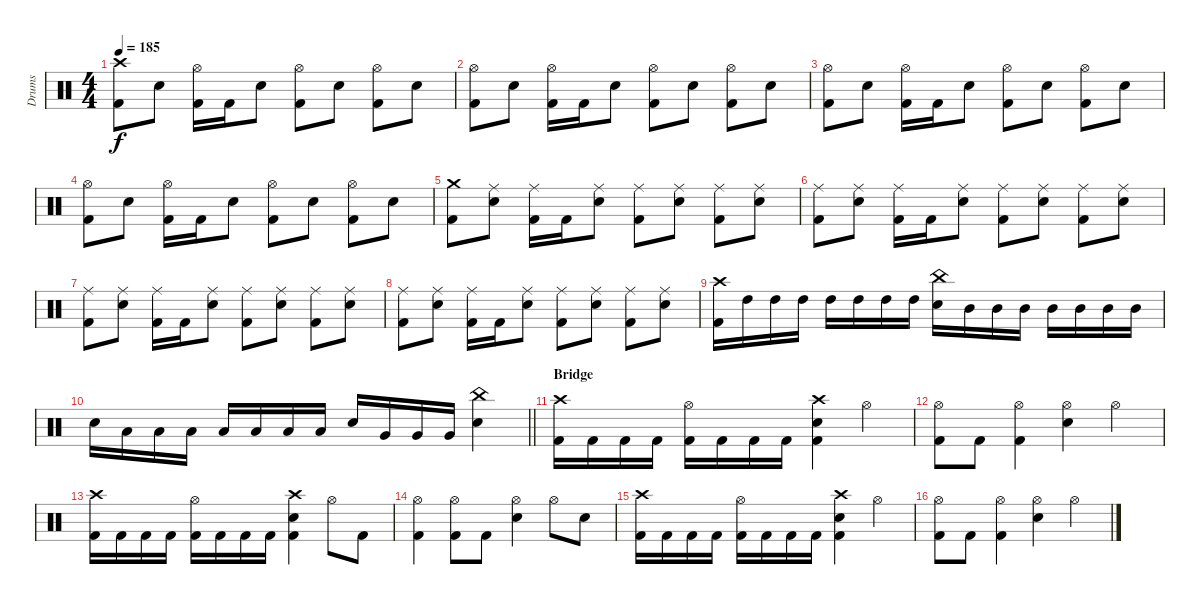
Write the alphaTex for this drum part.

\track ("Drums" "Drums") {instrument percussion}
\staff {score}
\articulation defaults
\ts (4 4)
\tempo 185
\clef neutral
\ks c
("Crash high (hit)" "Kick (hit) 2").8{dy f} "Electric Snare (hit)".8 ("Hi-Hat (open)" "Kick (hit) 2").16 "Kick (hit) 2".16 "Electric Snare (hit)".8 ("Hi-Hat (open)" "Kick (hit) 2").8 "Electric Snare (hit)".8 ("Hi-Hat (open)" "Kick (hit) 2").8 "Electric Snare (hit)".8 |
("Hi-Hat (open)" "Kick (hit) 2").8 "Electric Snare (hit)".8 ("Hi-Hat (open)" "Kick (hit) 2").16 "Kick (hit) 2".16 "Electric Snare (hit)".8 ("Hi-Hat (open)" "Kick (hit) 2").8 "Electric Snare (hit)".8 ("Hi-Hat (open)" "Kick (hit) 2").8 "Electric Snare (hit)".8 |
("Hi-Hat (open)" "Kick (hit) 2").8 "Electric Snare (hit)".8 ("Hi-Hat (open)" "Kick (hit) 2").16 "Kick (hit) 2".16 "Electric Snare (hit)".8 ("Hi-Hat (open)" "Kick (hit) 2").8 "Electric Snare (hit)".8 ("Hi-Hat (open)" "Kick (hit) 2").8 "Electric Snare (hit)".8 |
("Hi-Hat (open)" "Kick (hit) 2").8 "Electric Snare (hit)".8 ("Hi-Hat (open)" "Kick (hit) 2").16 "Kick (hit) 2".16 "Electric Snare (hit)".8 ("Hi-Hat (open)" "Kick (hit) 2").8 "Electric Snare (hit)".8 ("Hi-Hat (open)" "Kick (hit) 2").8 "Electric Snare (hit)".8 |
("Crash medium (hit)" "Kick (hit) 2").8 ("Ride (middle)" "Electric Snare (hit)").8 ("Ride (middle)" "Kick (hit) 2").16 "Kick (hit) 2".16 ("Ride (middle)" "Electric Snare (hit)").8 ("Ride (middle)" "Kick (hit) 2").8 ("Ride (middle)" "Electric Snare (hit)").8 ("Ride (middle)" "Kick (hit) 2").8 ("Ride (middle)" "Electric Snare (hit)").8 |
("Ride (middle)" "Kick (hit) 2").8 ("Ride (middle)" "Electric Snare (hit)").8 ("Ride (middle)" "Kick (hit) 2").16 "Kick (hit) 2".16 ("Ride (middle)" "Electric Snare (hit)").8 ("Ride (middle)" "Kick (hit) 2").8 ("Ride (middle)" "Electric Snare (hit)").8 ("Ride (middle)" "Kick (hit) 2").8 ("Ride (middle)" "Electric Snare (hit)").8 |
("Ride (middle)" "Kick (hit) 2").8 ("Ride (middle)" "Electric Snare (hit)").8 ("Ride (middle)" "Kick (hit) 2").16 "Kick (hit) 2".16 ("Ride (middle)" "Electric Snare (hit)").8 ("Ride (middle)" "Kick (hit) 2").8 ("Ride (middle)" "Electric Snare (hit)").8 ("Ride (middle)" "Kick (hit) 2").8 ("Ride (middle)" "Electric Snare (hit)").8 |
("Ride (middle)" "Kick (hit) 2").8 ("Ride (middle)" "Electric Snare (hit)").8 ("Ride (middle)" "Kick (hit) 2").16 "Kick (hit) 2".16 ("Ride (middle)" "Electric Snare (hit)").8 ("Ride (middle)" "Kick (hit) 2").8 ("Ride (middle)" "Electric Snare (hit)").8 ("Ride (middle)" "Kick (hit) 2").8 ("Ride (middle)" "Electric Snare (hit)").8 |
("Crash high (hit)" "Kick (hit) 2").16 "High Tom (hit)".16 "High Tom (hit)".16 "High Tom (hit)".16 "High Tom (hit)".16 "High Tom (hit)".16 "High Tom (hit)".16 "High Tom (hit)".16 ("China (hit)" "Electric Snare (hit)").16 "Mid Tom (hit)".16 "Mid Tom (hit)".16 "Mid Tom (hit)".16 "Mid Tom (hit)".16 "Mid Tom (hit)".16 "Mid Tom (hit)".16 "Mid Tom (hit)".16 |
\barLineRight lightlight "Electric Snare (hit)".16 "Low Tom (hit)".16 "Low Tom (hit)".16 "Low Tom (hit)".16 "Low Tom (hit)".16 "Low Tom (hit)".16 "Low Tom (hit)".16 "Low Tom (hit)".16 "Electric Snare (hit)".16 "Very Low Tom (hit)".16 "Very Low Tom (hit)".16 "Very Low Tom (hit)".16
("China (hit)" "Electric Snare (hit)").4 |
\section ("" "Bridge")
("Crash high (hit)" "Kick (hit) 2").16 "Kick (hit) 2".16 "Kick (hit) 2".16 "Kick (hit) 2".16 ("Hi-Hat (open)" "Kick (hit) 2").16 "Kick (hit) 2".16 "Kick (hit) 2".16 "Kick (hit) 2".16 ("Crash high (hit)" "Electric Snare (hit)" "Kick (hit) 2").4 "Hi-Hat (open)".4 |
("Hi-Hat (open)" "Kick (hit) 2").8 "Kick (hit) 2".8 ("Hi-Hat (open)" "Kick (hit) 2").4 ("Hi-Hat (open)" "Electric Snare (hit)").4 "Hi-Hat (open)".4 |
("Crash high (hit)" "Kick (hit) 2").16 "Kick (hit) 2".16 "Kick (hit) 2".16 "Kick (hit) 2".16 ("Hi-Hat (open)" "Kick (hit) 2").16 "Kick (hit) 2".16 "Kick (hit) 2".16 "Kick (hit) 2".16 ("Crash high (hit)" "Electric Snare (hit)" "Kick (hit) 2").4 "Hi-Hat (open)".8 "Kick (hit) 2".8 |
("Hi-Hat (open)" "Kick (hit) 2").4 ("Hi-Hat (open)" "Kick (hit) 2").8 "Kick (hit) 2".8 ("Hi-Hat (open)" "Electric Snare (hit)").4 "Hi-Hat (open)".8 "Electric Snare (hit)".8 |
("Crash high (hit)" "Kick (hit) 2").16 "Kick (hit) 2".16 "Kick (hit) 2".16 "Kick (hit) 2".16 ("Hi-Hat (open)" "Kick (hit) 2").16 "Kick (hit) 2".16 "Kick (hit) 2".16 "Kick (hit) 2".16 ("Crash high (hit)" "Electric Snare (hit)" "Kick (hit) 2").4 "Hi-Hat (open)".4 |
("Hi-Hat (open)" "Kick (hit) 2").8 "Kick (hit) 2".8 ("Hi-Hat (open)" "Kick (hit) 2").4 ("Hi-Hat (open)" "Electric Snare (hit)").4 "Hi-Hat (open)".4
